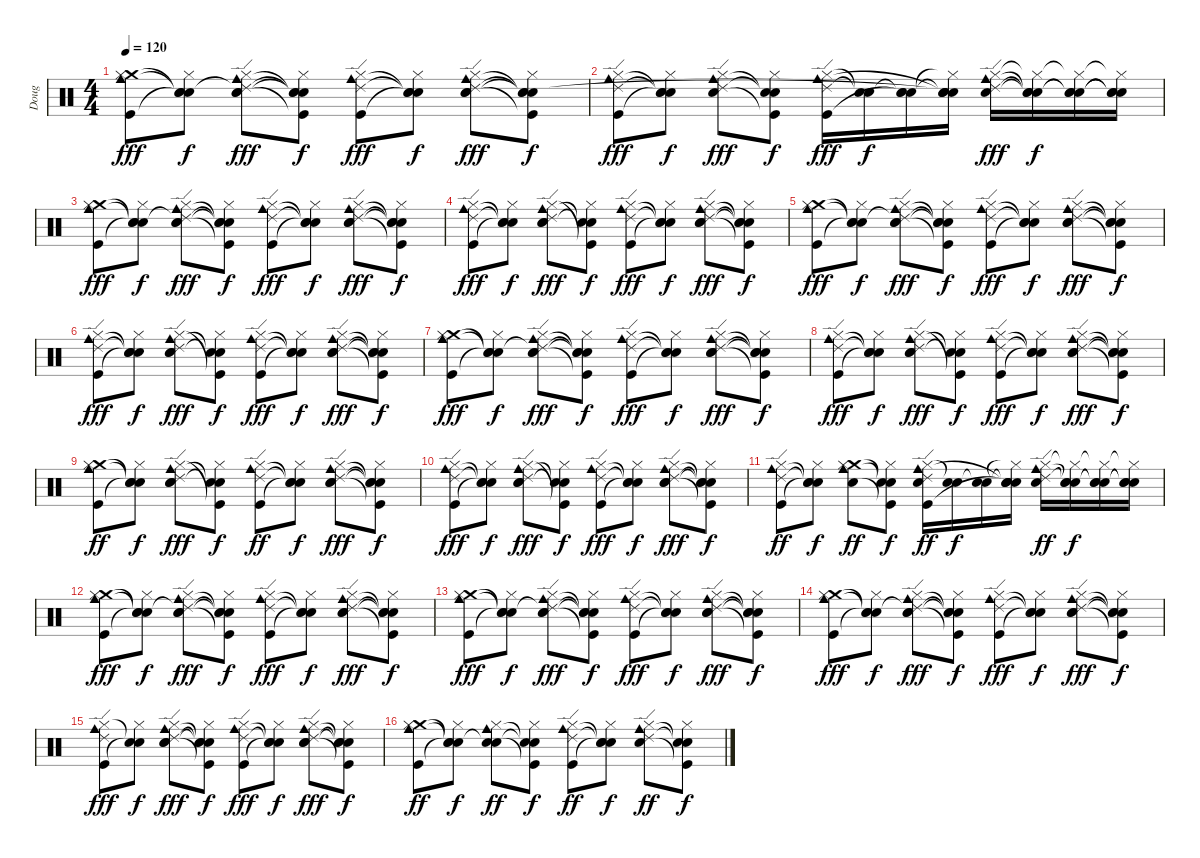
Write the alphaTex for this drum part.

\track ("Doug" "Doug") {instrument percussion}
\staff {score}
\articulation defaults
\ts (4 4)
\tempo 120
\clef neutral
\ks c
("Crash medium (hit)" "Hi-Hat (closed)" "Kick (hit)" "Cowbell medium (hit)").8{dy fff} ("Snare (hit)"{t} "Hi-Hat (closed)" "Snare (hit)"{t} "Snare (hit)"{t}).8{dy f} ("Ride (edge) 2"{t} "Hi-Hat (closed)" "Snare (hit) 2" "Cowbell medium (hit)" "Hand Clap (hit)").8{dy fff} ("Snare (hit)"{t} "Hi-Hat (closed)" "Kick (hit)"{t} "Snare (hit)"{t} "Snare (hit)"{t}).8{dy f} ("Ride (edge) 2" "Hi-Hat (closed)" "Kick (hit)" "Cowbell medium (hit)").8{dy fff} ("Snare (hit)"{t} "Hi-Hat (closed)" "Snare (hit)"{t} "Snare (hit)"{t}).8{dy f} ("Ride (edge) 2" "Hi-Hat (closed)" "Snare (hit) 2" "Cowbell medium (hit)" "Hand Clap (hit)").8{dy fff} ("Snare (hit)"{t} "Hi-Hat (closed)" "Kick (hit)"{t} "Snare (hit)"{t} "Snare (hit)"{t}).8{dy f} |
("Ride (edge) 2" "Hi-Hat (closed)" "Kick (hit)" "Cowbell medium (hit)").8{dy fff} ("Snare (hit)"{t} "Hi-Hat (closed)" "Snare (hit)"{t} "Snare (hit)"{t}).8{dy f} ("Ride (edge) 2" "Hi-Hat (closed)" "Snare (hit) 2" "Cowbell medium (hit)").8{dy fff} ("Snare (hit)"{t} "Hi-Hat (closed)" "Kick (hit)"{t} "Snare (hit)"{t}).8{dy f} ("Ride (edge) 2" "Hi-Hat (closed)" "Kick (hit)" "Cowbell medium (hit)").16{dy fff} ("Snare (hit)"{t} "Snare (hit)"{t}).16{dy f} ("Snare (hit)"{t} "Snare (hit) 2" "Snare (hit)"{t}).16 ("Snare (hit)"{t} "Hi-Hat (closed)"{t} "Snare (hit) 2" "Snare (hit)"{t} "Snare (hit)"{t}).16 ("Ride (edge) 2" "Hi-Hat (closed)" "Snare (hit) 2" "Cowbell medium (hit)").16{dy fff} ("Snare (hit)"{t} "Hi-Hat (closed)"{t} "Snare (hit) 2"{t} "Snare (hit)"{t}).16{dy f} ("Snare (hit)"{t} "Hi-Hat (closed)"{t} "Snare (hit) 2" "Snare (hit)"{t}).16 ("Snare (hit)"{t} "Hi-Hat (closed)"{t} "Snare (hit) 2"{t} "Snare (hit)"{t}).16 |
("Crash medium (hit)" "Hi-Hat (closed)" "Kick (hit)" "Cowbell medium (hit)").8{dy fff} ("Snare (hit)"{t} "Hi-Hat (closed)" "Snare (hit)"{t} "Snare (hit)"{t}).8{dy f} ("Ride (edge) 2"{t} "Hi-Hat (closed)" "Snare (hit) 2" "Cowbell medium (hit)" "Hand Clap (hit)").8{dy fff} ("Snare (hit)"{t} "Hi-Hat (closed)" "Kick (hit)"{t} "Snare (hit)"{t} "Snare (hit)"{t}).8{dy f} ("Ride (edge) 2" "Hi-Hat (closed)" "Kick (hit)" "Cowbell medium (hit)").8{dy fff} ("Snare (hit)"{t} "Hi-Hat (closed)" "Snare (hit)"{t} "Snare (hit)"{t}).8{dy f} ("Ride (edge) 2" "Hi-Hat (closed)" "Snare (hit) 2" "Cowbell medium (hit)" "Hand Clap (hit)").8{dy fff} ("Snare (hit)"{t} "Hi-Hat (closed)" "Kick (hit)"{t} "Snare (hit)"{t} "Snare (hit)"{t}).8{dy f} |
("Ride (edge) 2" "Hi-Hat (closed)" "Kick (hit)" "Cowbell medium (hit)").8{dy fff} ("Snare (hit)"{t} "Hi-Hat (closed)" "Snare (hit)"{t} "Snare (hit)"{t}).8{dy f} ("Ride (edge) 2" "Hi-Hat (closed)" "Snare (hit) 2" "Cowbell medium (hit)" "Hand Clap (hit)").8{dy fff} ("Hi-Hat (closed)" "Kick (hit)"{t} "Snare (hit)"{t} "Snare (hit)"{t}).8{dy f} ("Ride (edge) 2" "Hi-Hat (closed)" "Kick (hit)" "Cowbell medium (hit)").8{dy fff} ("Snare (hit)"{t} "Hi-Hat (closed)" "Snare (hit)"{t} "Snare (hit)"{t}).8{dy f} ("Ride (edge) 2" "Hi-Hat (closed)" "Snare (hit) 2" "Cowbell medium (hit)" "Hand Clap (hit)").8{dy fff} ("Snare (hit)"{t} "Hi-Hat (closed)" "Kick (hit)"{t} "Snare (hit)"{t} "Snare (hit)"{t}).8{dy f} |
("Crash medium (hit)" "Hi-Hat (closed)" "Kick (hit)" "Cowbell medium (hit)").8{dy fff} ("Snare (hit)"{t} "Hi-Hat (closed)" "Snare (hit)"{t} "Snare (hit)"{t}).8{dy f} ("Ride (edge) 2"{t} "Hi-Hat (closed)" "Snare (hit) 2" "Cowbell medium (hit)" "Hand Clap (hit)").8{dy fff} ("Snare (hit)"{t} "Hi-Hat (closed)" "Kick (hit)"{t} "Snare (hit)"{t} "Snare (hit)"{t}).8{dy f} ("Ride (edge) 2" "Hi-Hat (closed)" "Kick (hit)" "Cowbell medium (hit)").8{dy fff} ("Snare (hit)"{t} "Hi-Hat (closed)" "Snare (hit)"{t} "Snare (hit)"{t}).8{dy f} ("Ride (edge) 2" "Hi-Hat (closed)" "Snare (hit) 2" "Cowbell medium (hit)" "Hand Clap (hit)").8{dy fff} ("Snare (hit)"{t} "Hi-Hat (closed)" "Kick (hit)"{t} "Snare (hit)"{t} "Snare (hit)"{t}).8{dy f} |
("Ride (edge) 2" "Hi-Hat (closed)" "Kick (hit)" "Cowbell medium (hit)").8{dy fff} ("Snare (hit)"{t} "Hi-Hat (closed)" "Snare (hit)"{t} "Snare (hit)"{t}).8{dy f} ("Ride (edge) 2" "Hi-Hat (closed)" "Snare (hit) 2" "Cowbell medium (hit)" "Hand Clap (hit)").8{dy fff} ("Hi-Hat (closed)" "Kick (hit)"{t} "Snare (hit)"{t} "Snare (hit)"{t}).8{dy f} ("Ride (edge) 2" "Hi-Hat (closed)" "Kick (hit)" "Cowbell medium (hit)").8{dy fff} ("Snare (hit)"{t} "Hi-Hat (closed)" "Snare (hit)"{t} "Snare (hit)"{t}).8{dy f} ("Ride (edge) 2" "Hi-Hat (closed)" "Snare (hit) 2" "Cowbell medium (hit)" "Hand Clap (hit)").8{dy fff} ("Snare (hit)"{t} "Hi-Hat (closed)" "Kick (hit)"{t} "Snare (hit)"{t} "Snare (hit)"{t}).8{dy f} |
("Crash medium (hit)" "Hi-Hat (closed)" "Kick (hit)" "Cowbell medium (hit)").8{dy fff} ("Snare (hit)"{t} "Hi-Hat (closed)" "Snare (hit)"{t} "Snare (hit)"{t}).8{dy f} ("Ride (edge) 2"{t} "Hi-Hat (closed)" "Snare (hit) 2" "Cowbell medium (hit)" "Hand Clap (hit)").8{dy fff} ("Snare (hit)"{t} "Hi-Hat (closed)" "Kick (hit)"{t} "Snare (hit)"{t} "Snare (hit)"{t}).8{dy f} ("Ride (edge) 2" "Hi-Hat (closed)" "Kick (hit)" "Cowbell medium (hit)").8{dy fff} ("Snare (hit)"{t} "Hi-Hat (closed)" "Snare (hit)"{t} "Snare (hit)"{t}).8{dy f} ("Ride (edge) 2" "Hi-Hat (closed)" "Snare (hit) 2" "Cowbell medium (hit)" "Hand Clap (hit)").8{dy fff} ("Snare (hit)"{t} "Hi-Hat (closed)" "Kick (hit)"{t} "Snare (hit)"{t} "Snare (hit)"{t}).8{dy f} |
("Ride (edge) 2" "Hi-Hat (closed)" "Kick (hit)" "Cowbell medium (hit)").8{dy fff} ("Snare (hit)"{t} "Hi-Hat (closed)" "Snare (hit)"{t} "Snare (hit)"{t}).8{dy f} ("Ride (edge) 2" "Hi-Hat (closed)" "Snare (hit) 2" "Cowbell medium (hit)" "Hand Clap (hit)").8{dy fff} ("Hi-Hat (closed)" "Kick (hit)"{t} "Snare (hit)"{t} "Snare (hit)"{t}).8{dy f} ("Ride (edge) 2" "Hi-Hat (closed)" "Kick (hit)" "Cowbell medium (hit)").8{dy fff} ("Snare (hit)"{t} "Hi-Hat (closed)" "Snare (hit)"{t} "Snare (hit)"{t}).8{dy f} ("Ride (edge) 2" "Hi-Hat (closed)" "Snare (hit) 2" "Cowbell medium (hit)" "Hand Clap (hit)").8{dy fff} ("Snare (hit)"{t} "Hi-Hat (closed)" "Kick (hit)"{t} "Snare (hit)"{t} "Snare (hit)"{t}).8{dy f} |
("Crash medium (hit)" "Hi-Hat (closed)" "Kick (hit)" "Cowbell medium (hit)").8{dy ff} ("Snare (hit)"{t} "Hi-Hat (closed)" "Snare (hit)"{t} "Snare (hit)"{t}).8{dy f} ("Ride (edge) 2" "Hi-Hat (closed)" "Snare (hit) 2" "Cowbell medium (hit)" "Hand Clap (hit)").8{dy fff} ("Hi-Hat (closed)" "Kick (hit)"{t} "Snare (hit)"{t} "Snare (hit)"{t}).8{dy f} ("Ride (edge) 2" "Hi-Hat (closed)" "Kick (hit)" "Cowbell medium (hit)").8{dy ff} ("Snare (hit)"{t} "Hi-Hat (closed)" "Snare (hit)"{t} "Snare (hit)"{t}).8{dy f} ("Ride (edge) 2" "Hi-Hat (closed)" "Snare (hit) 2" "Cowbell medium (hit)" "Hand Clap (hit)").8{dy fff} ("Snare (hit)"{t} "Hi-Hat (closed)" "Kick (hit)"{t} "Snare (hit)"{t} "Snare (hit)"{t}).8{dy f} |
("Ride (edge) 2" "Hi-Hat (closed)" "Kick (hit)" "Cowbell medium (hit)").8{dy fff} ("Snare (hit)"{t} "Hi-Hat (closed)" "Snare (hit)"{t} "Snare (hit)"{t}).8{dy f} ("Ride (edge) 2" "Hi-Hat (closed)" "Snare (hit) 2" "Cowbell medium (hit)" "Hand Clap (hit)").8{dy fff} ("Hi-Hat (closed)" "Kick (hit)"{t} "Snare (hit)"{t} "Snare (hit)"{t}).8{dy f} ("Ride (edge) 2" "Hi-Hat (closed)" "Kick (hit)" "Cowbell medium (hit)").8{dy fff} ("Snare (hit)"{t} "Hi-Hat (closed)" "Snare (hit)"{t} "Snare (hit)"{t}).8{dy f} ("Ride (edge) 2" "Hi-Hat (closed)" "Snare (hit) 2" "Cowbell medium (hit)" "Hand Clap (hit)").8{dy fff} ("Snare (hit)"{t} "Hi-Hat (closed)" "Kick (hit)"{t} "Snare (hit)"{t} "Snare (hit)"{t}).8{dy f} |
("Ride (edge) 2" "Hi-Hat (closed)" "Kick (hit)" "Cowbell medium (hit)").8{dy ff} ("Snare (hit)"{t} "Hi-Hat (closed)" "Snare (hit)"{t} "Snare (hit)"{t}).8{dy f} ("Crash medium (hit)" "Hi-Hat (closed)" "Snare (hit) 2" "Cowbell medium (hit)").8{dy ff} ("Snare (hit)"{t} "Hi-Hat (closed)" "Kick (hit)"{t} "Snare (hit)"{t}).8{dy f} ("Ride (edge) 2" "Hi-Hat (closed)" "Snare (hit) 2" "Kick (hit)" "Cowbell medium (hit)").16{dy ff} ("Snare (hit) 2" "Snare (hit)"{t}).16{dy f} ("Snare (hit) 2" "Snare (hit)"{t}).16 ("Snare (hit)"{t} "Hi-Hat (closed)"{t} "Snare (hit) 2" "Snare (hit)"{t} "Snare (hit)"{t}).16 ("Ride (edge) 2" "Hi-Hat (closed)" "Snare (hit) 2" "Cowbell medium (hit)").16{dy ff} ("Snare (hit)"{t} "Hi-Hat (closed)"{t} "Snare (hit) 2" "Snare (hit)"{t}).16{dy f} ("Snare (hit)"{t} "Hi-Hat (closed)"{t} "Snare (hit) 2" "Snare (hit)"{t}).16 ("Snare (hit)"{t} "Hi-Hat (closed)"{t} "Snare (hit) 2" "Snare (hit)"{t}).16 |
("Crash medium (hit)" "Hi-Hat (closed)" "Kick (hit)" "Cowbell medium (hit)").8{dy fff} ("Snare (hit)"{t} "Hi-Hat (closed)" "Snare (hit)"{t} "Snare (hit)"{t}).8{dy f} ("Ride (edge) 2"{t} "Hi-Hat (closed)" "Snare (hit) 2" "Cowbell medium (hit)" "Hand Clap (hit)").8{dy fff} ("Snare (hit)"{t} "Hi-Hat (closed)" "Kick (hit)"{t} "Snare (hit)"{t} "Snare (hit)"{t}).8{dy f} ("Ride (edge) 2" "Hi-Hat (closed)" "Kick (hit)" "Cowbell medium (hit)").8{dy fff} ("Snare (hit)"{t} "Hi-Hat (closed)" "Snare (hit)"{t} "Snare (hit)"{t}).8{dy f} ("Ride (edge) 2" "Hi-Hat (closed)" "Snare (hit) 2" "Cowbell medium (hit)" "Hand Clap (hit)").8{dy fff} ("Snare (hit)"{t} "Hi-Hat (closed)" "Kick (hit)"{t} "Snare (hit)"{t} "Snare (hit)"{t}).8{dy f} |
("Crash medium (hit)" "Hi-Hat (closed)" "Kick (hit)" "Cowbell medium (hit)").8{dy fff} ("Snare (hit)"{t} "Hi-Hat (closed)" "Snare (hit)"{t} "Snare (hit)"{t}).8{dy f} ("Ride (edge) 2"{t} "Hi-Hat (closed)" "Snare (hit) 2" "Cowbell medium (hit)" "Hand Clap (hit)").8{dy fff} ("Snare (hit)"{t} "Hi-Hat (closed)" "Kick (hit)"{t} "Snare (hit)"{t} "Snare (hit)"{t}).8{dy f} ("Ride (edge) 2" "Hi-Hat (closed)" "Kick (hit)" "Cowbell medium (hit)").8{dy fff} ("Snare (hit)"{t} "Hi-Hat (closed)" "Snare (hit)"{t} "Snare (hit)"{t}).8{dy f} ("Ride (edge) 2" "Hi-Hat (closed)" "Snare (hit) 2" "Cowbell medium (hit)" "Hand Clap (hit)").8{dy fff} ("Snare (hit)"{t} "Hi-Hat (closed)" "Kick (hit)"{t} "Snare (hit)"{t} "Snare (hit)"{t}).8{dy f} |
("Crash medium (hit)" "Hi-Hat (closed)" "Kick (hit)" "Cowbell medium (hit)").8{dy fff} ("Snare (hit)"{t} "Hi-Hat (closed)" "Snare (hit)"{t} "Snare (hit)"{t}).8{dy f} ("Ride (edge) 2"{t} "Hi-Hat (closed)" "Snare (hit) 2" "Cowbell medium (hit)" "Hand Clap (hit)").8{dy fff} ("Snare (hit)"{t} "Hi-Hat (closed)" "Kick (hit)"{t} "Snare (hit)"{t} "Snare (hit)"{t}).8{dy f} ("Ride (edge) 2" "Hi-Hat (closed)" "Kick (hit)" "Cowbell medium (hit)").8{dy fff} ("Snare (hit)"{t} "Hi-Hat (closed)" "Snare (hit)"{t} "Snare (hit)"{t}).8{dy f} ("Ride (edge) 2" "Hi-Hat (closed)" "Snare (hit) 2" "Cowbell medium (hit)" "Hand Clap (hit)").8{dy fff} ("Snare (hit)"{t} "Hi-Hat (closed)" "Kick (hit)"{t} "Snare (hit)"{t} "Snare (hit)"{t}).8{dy f} |
("Ride (edge) 2" "Hi-Hat (closed)" "Kick (hit)" "Cowbell medium (hit)").8{dy fff} ("Hi-Hat (closed)" "Snare (hit)"{t} "Snare (hit)"{t}).8{dy f} ("Ride (edge) 2" "Hi-Hat (closed)" "Snare (hit) 2" "Cowbell medium (hit)" "Hand Clap (hit)").8{dy fff} ("Snare (hit)"{t} "Hi-Hat (closed)" "Kick (hit)"{t} "Snare (hit)"{t} "Snare (hit)"{t}).8{dy f} ("Ride (edge) 2" "Hi-Hat (closed)" "Kick (hit)" "Cowbell medium (hit)").8{dy fff} ("Snare (hit)"{t} "Hi-Hat (closed)" "Snare (hit)"{t} "Snare (hit)"{t}).8{dy f} ("Ride (edge) 2" "Hi-Hat (closed)" "Snare (hit) 2" "Cowbell medium (hit)" "Hand Clap (hit)").8{dy fff} ("Snare (hit)"{t} "Hi-Hat (closed)" "Kick (hit)"{t} "Snare (hit)"{t} "Snare (hit)"{t}).8{dy f} |
("Crash medium (hit)" "Hi-Hat (closed)" "Kick (hit)" "Cowbell medium (hit)").8{dy ff} ("Snare (hit)"{t} "Hi-Hat (closed)" "Snare (hit)"{t} "Snare (hit)"{t}).8{dy f} ("Snare (hit)"{t} "Hi-Hat (closed)" "Snare (hit) 2" "Cowbell medium (hit)").8{dy ff} ("Snare (hit)"{t} "Hi-Hat (closed)" "Kick (hit)"{t} "Snare (hit)"{t}).8{dy f} ("Ride (edge) 2" "Hi-Hat (closed)" "Kick (hit)" "Cowbell medium (hit)").8{dy ff} ("Snare (hit)"{t} "Hi-Hat (closed)" "Snare (hit)"{t} "Snare (hit)"{t}).8{dy f} ("Ride (edge) 2" "Hi-Hat (closed)" "Snare (hit) 2" "Cowbell medium (hit)").8{dy ff} ("Snare (hit)"{t} "Hi-Hat (closed)" "Kick (hit)"{t} "Snare (hit)"{t}).8{dy f}
